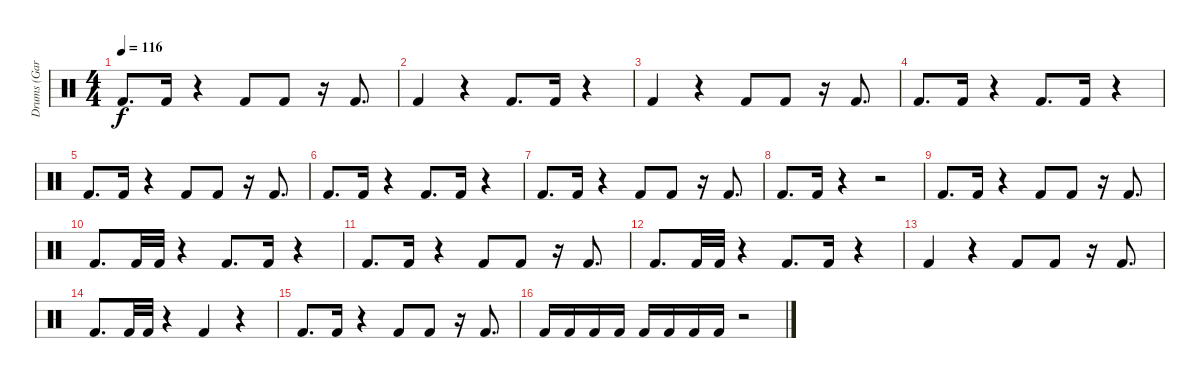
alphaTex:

\track ("Drums (Gar Samuelson)" "Drums (Gar") {instrument percussion}
\staff {score}
\articulation defaults
\ts (4 4)
\tempo 116
\clef neutral
\ks c "Kick (hit) 2".8{d dy f} "Kick (hit) 2".16
r.4 "Kick (hit) 2".8 "Kick (hit) 2".8 r.16 "Kick (hit) 2".8{d} |
"Kick (hit) 2".4 r.4 "Kick (hit) 2".8{d} "Kick (hit) 2".16 r.4 |
"Kick (hit) 2".4 r.4 "Kick (hit) 2".8 "Kick (hit) 2".8 r.16 "Kick (hit) 2".8{d} |
"Kick (hit) 2".8{d} "Kick (hit) 2".16 r.4 "Kick (hit) 2".8{d} "Kick (hit) 2".16 r.4 |
"Kick (hit) 2".8{d} "Kick (hit) 2".16 r.4 "Kick (hit) 2".8 "Kick (hit) 2".8 r.16 "Kick (hit) 2".8{d} |
"Kick (hit) 2".8{d} "Kick (hit) 2".16 r.4 "Kick (hit) 2".8{d} "Kick (hit) 2".16 r.4 |
"Kick (hit) 2".8{d} "Kick (hit) 2".16 r.4 "Kick (hit) 2".8 "Kick (hit) 2".8 r.16 "Kick (hit) 2".8{d} |
"Kick (hit) 2".8{d} "Kick (hit) 2".16 r.4 r.2 |
"Kick (hit) 2".8{d} "Kick (hit) 2".16 r.4 "Kick (hit) 2".8 "Kick (hit) 2".8 r.16 "Kick (hit) 2".8{d} |
"Kick (hit) 2".8{d} "Kick (hit) 2".32 "Kick (hit) 2".32 r.4 "Kick (hit) 2".8{d} "Kick (hit) 2".16 r.4 |
"Kick (hit) 2".8{d} "Kick (hit) 2".16 r.4 "Kick (hit) 2".8 "Kick (hit) 2".8 r.16 "Kick (hit) 2".8{d} |
"Kick (hit) 2".8{d} "Kick (hit) 2".32 "Kick (hit) 2".32 r.4 "Kick (hit) 2".8{d} "Kick (hit) 2".16 r.4 |
"Kick (hit) 2".4 r.4 "Kick (hit) 2".8 "Kick (hit) 2".8 r.16 "Kick (hit) 2".8{d} |
"Kick (hit) 2".8{d} "Kick (hit) 2".32 "Kick (hit) 2".32 r.4 "Kick (hit) 2".4 r.4 |
"Kick (hit) 2".8{d} "Kick (hit) 2".16 r.4 "Kick (hit) 2".8 "Kick (hit) 2".8 r.16 "Kick (hit) 2".8{d} |
"Kick (hit) 2".16 "Kick (hit) 2".16 "Kick (hit) 2".16 "Kick (hit) 2".16 "Kick (hit) 2".16 "Kick (hit) 2".16 "Kick (hit) 2".16 "Kick (hit) 2".16 r.2
